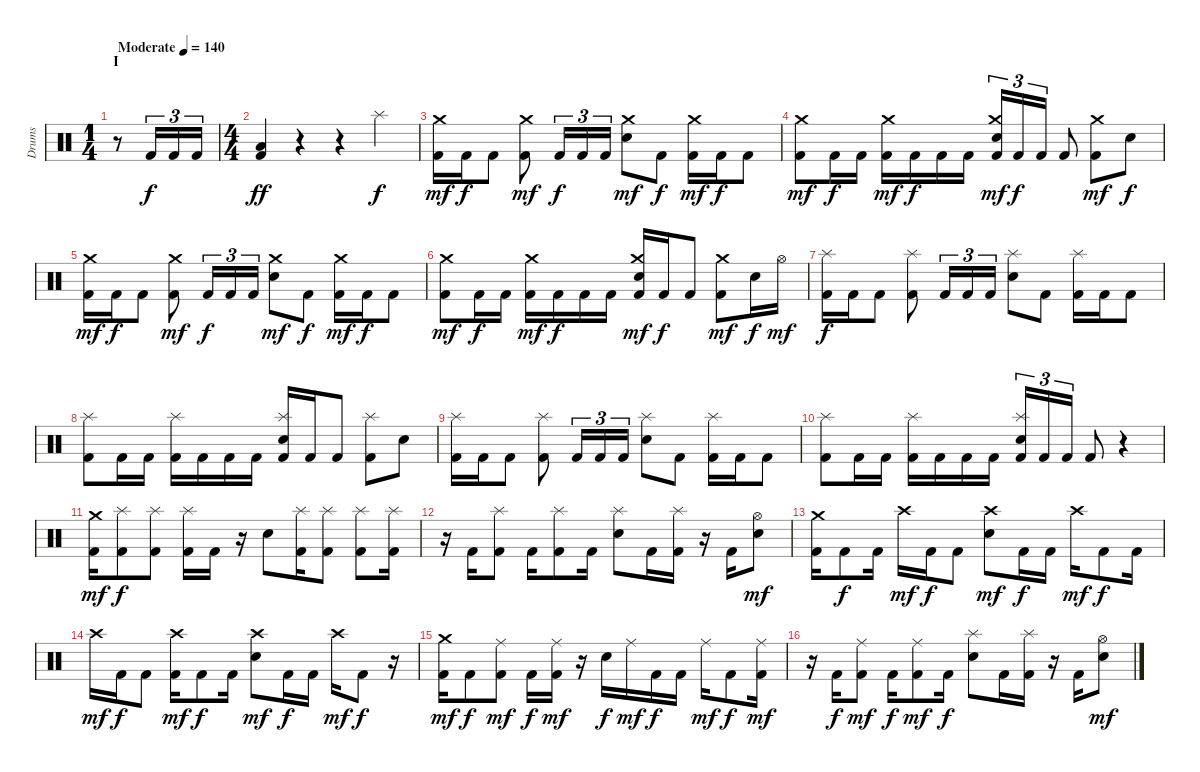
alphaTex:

\track ("Drums" "Drums") {instrument percussion}
\staff {score}
\articulation defaults
\ts (1 4)
\section ("" "I")
\tempo (140 "Moderate")
\clef neutral
\ks c
r.8{dy f} "Kick (hit) 2".16{tu (3 2)} "Kick (hit) 2".16{tu (3 2)} "Kick (hit) 2".16{tu (3 2)} |
\ts (4 4)
("Low Tom (hit)" "Kick (hit) 2").4{dy ff} r.4 r.4 "Splash (hit)".4{dy f} |
("Crash medium (hit)" "Kick (hit) 2").16{dy mf} "Kick (hit) 2".16{dy f} "Kick (hit) 2".8 ("Crash medium (hit)" "Kick (hit) 2").8{dy mf} "Kick (hit) 2".16{tu (3 2) dy f} "Kick (hit) 2".16{tu (3 2)} "Kick (hit) 2".16{tu (3 2)} ("Crash medium (hit)" "Electric Snare (hit)").8{dy mf} "Kick (hit) 2".8{dy f} ("Crash medium (hit)" "Kick (hit) 2").16{dy mf} "Kick (hit) 2".16{dy f} "Kick (hit) 2".8 |
("Crash medium (hit)" "Kick (hit) 2").8{dy mf} "Kick (hit) 2".16{dy f} "Kick (hit) 2".16 ("Crash medium (hit)" "Kick (hit) 2").16{dy mf} "Kick (hit) 2".16{dy f} "Kick (hit) 2".16 "Kick (hit) 2".16 ("Crash medium (hit)" "Electric Snare (hit)" "Kick (hit) 2").16{tu (3 2) dy mf} "Kick (hit) 2".16{tu (3 2) dy f} "Kick (hit) 2".16{tu (3 2)} "Kick (hit) 2".8 ("Crash medium (hit)" "Kick (hit) 2").8{dy mf} "Electric Snare (hit)".8{dy f} |
("Crash medium (hit)" "Kick (hit) 2").16{dy mf} "Kick (hit) 2".16{dy f} "Kick (hit) 2".8 ("Crash medium (hit)" "Kick (hit) 2").8{dy mf} "Kick (hit) 2".16{tu (3 2) dy f} "Kick (hit) 2".16{tu (3 2)} "Kick (hit) 2".16{tu (3 2)} ("Crash medium (hit)" "Electric Snare (hit)").8{dy mf} "Kick (hit) 2".8{dy f} ("Crash medium (hit)" "Kick (hit) 2").16{dy mf} "Kick (hit) 2".16{dy f} "Kick (hit) 2".8 |
("Crash medium (hit)" "Kick (hit) 2").8{dy mf} "Kick (hit) 2".16{dy f} "Kick (hit) 2".16 ("Crash medium (hit)" "Kick (hit) 2").16{dy mf} "Kick (hit) 2".16{dy f} "Kick (hit) 2".16 "Kick (hit) 2".16 ("Crash medium (hit)" "Electric Snare (hit)" "Kick (hit) 2").16{dy mf} "Kick (hit) 2".16{dy f} "Kick (hit) 2".8 ("Crash medium (hit)" "Kick (hit) 2").8{dy mf} "Electric Snare (hit)".16{dy f} "Hi-Hat (open)".16{dy mf} |
("Splash (hit)" "Kick (hit) 2").16{dy f} "Kick (hit) 2".16 "Kick (hit) 2".8 ("Splash (hit)" "Kick (hit) 2").8 "Kick (hit) 2".16{tu (3 2)} "Kick (hit) 2".16{tu (3 2)} "Kick (hit) 2".16{tu (3 2)} ("Splash (hit)" "Electric Snare (hit)").8 "Kick (hit) 2".8 ("Splash (hit)" "Kick (hit) 2").16 "Kick (hit) 2".16 "Kick (hit) 2".8 |
("Splash (hit)" "Kick (hit) 2").8 "Kick (hit) 2".16 "Kick (hit) 2".16 ("Splash (hit)" "Kick (hit) 2").16 "Kick (hit) 2".16 "Kick (hit) 2".16 "Kick (hit) 2".16 ("Splash (hit)" "Electric Snare (hit)" "Kick (hit) 2").16 "Kick (hit) 2".16 "Kick (hit) 2".8 ("Splash (hit)" "Kick (hit) 2").8 "Electric Snare (hit)".8 |
("Splash (hit)" "Kick (hit) 2").16 "Kick (hit) 2".16 "Kick (hit) 2".8 ("Splash (hit)" "Kick (hit) 2").8 "Kick (hit) 2".16{tu (3 2)} "Kick (hit) 2".16{tu (3 2)} "Kick (hit) 2".16{tu (3 2)} ("Splash (hit)" "Electric Snare (hit)").8 "Kick (hit) 2".8 ("Splash (hit)" "Kick (hit) 2").16 "Kick (hit) 2".16 "Kick (hit) 2".8 |
("Splash (hit)" "Kick (hit) 2").8 "Kick (hit) 2".16 "Kick (hit) 2".16 ("Splash (hit)" "Kick (hit) 2").16 "Kick (hit) 2".16 "Kick (hit) 2".16 "Kick (hit) 2".16 ("Splash (hit)" "Electric Snare (hit)" "Kick (hit) 2").16{tu (3 2)} "Kick (hit) 2".16{tu (3 2)} "Kick (hit) 2".16{tu (3 2)} "Kick (hit) 2".8 r.4 |
("Crash medium (hit)" "Kick (hit) 2").16{dy mf} ("Splash (hit)" "Kick (hit) 2").8{dy f} ("Splash (hit)" "Kick (hit) 2").8 ("Splash (hit)" "Kick (hit) 2").16 "Kick (hit) 2".16 r.16 "Electric Snare (hit)".8 ("Splash (hit)" "Kick (hit) 2").16 ("Splash (hit)" "Kick (hit) 2").8 ("Splash (hit)" "Kick (hit) 2").8 ("Splash (hit)" "Kick (hit) 2").16 |
r.16 "Kick (hit) 2".16 ("Splash (hit)" "Kick (hit) 2").8 "Kick (hit) 2".16 ("Splash (hit)" "Kick (hit) 2").8 "Kick (hit) 2".16 ("Splash (hit)" "Electric Snare (hit)").8 "Kick (hit) 2".16 ("Splash (hit)" "Kick (hit) 2").16 r.16 "Kick (hit) 2".16 ("Hi-Hat (open)" "Electric Snare (hit)").8{dy mf} |
("Crash medium (hit)" "Kick (hit) 2").16 "Kick (hit) 2".8{dy f} "Kick (hit) 2".16 "Crash high (hit)".16{dy mf} "Kick (hit) 2".16{dy f} "Kick (hit) 2".8 ("Crash high (hit)" "Electric Snare (hit)").8{dy mf} "Kick (hit) 2".16{dy f} "Kick (hit) 2".16 "Crash high (hit)".16{dy mf} "Kick (hit) 2".8{dy f} "Kick (hit) 2".16 |
"Crash high (hit)".16{dy mf} "Kick (hit) 2".16{dy f} "Kick (hit) 2".8 ("Crash high (hit)" "Kick (hit) 2").16{dy mf} "Kick (hit) 2".8{dy f} "Kick (hit) 2".16 ("Crash high (hit)" "Electric Snare (hit)").8{dy mf} "Kick (hit) 2".16{dy f} "Kick (hit) 2".16 "Crash high (hit)".16{dy mf} "Kick (hit) 2".8{dy f} r.16 |
("Crash medium (hit)" "Kick (hit) 2").16{dy mf} "Kick (hit) 2".8{dy f} ("Ride (middle)" "Kick (hit) 2").8{dy mf} "Kick (hit) 2".16{dy f} ("Ride (middle)" "Kick (hit) 2").16{dy mf} r.16 "Electric Snare (hit)".16{dy f} "Ride (middle)".16{dy mf} "Kick (hit) 2".16{dy f} "Kick (hit) 2".16 "Ride (middle)".16{dy mf} "Kick (hit) 2".8{dy f} ("Ride (middle)" "Kick (hit) 2").16{dy mf} |
r.16 "Kick (hit) 2".16{dy f} ("Ride (middle)" "Kick (hit) 2").8{dy mf} "Kick (hit) 2".16{dy f} ("Ride (middle)" "Kick (hit) 2").8{dy mf} "Kick (hit) 2".16{dy f} ("Splash (hit)" "Electric Snare (hit)").8 "Kick (hit) 2".16 ("Splash (hit)" "Kick (hit) 2").16 r.16 "Kick (hit) 2".16 ("Hi-Hat (open)" "Electric Snare (hit)").8{dy mf}
